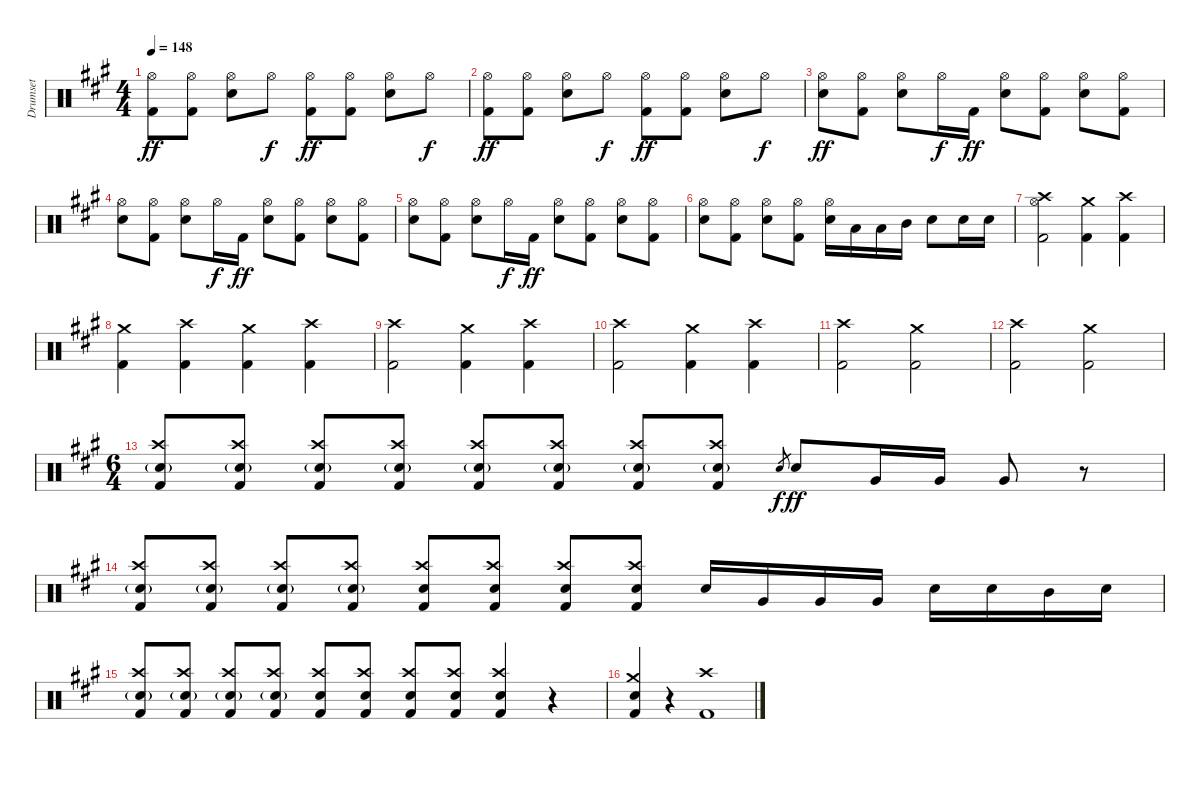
\track ("Drumset" "Drumset") {instrument percussion}
\staff {score}
\articulation defaults
\ts (4 4)
\tempo 148
\clef neutral
\ks a
("Hi-Hat (open)" "Kick (hit) 2").8{dy ff} ("Hi-Hat (open)" "Kick (hit) 2").8 ("Hi-Hat (open)" "Electric Snare (hit)").8 "Hi-Hat (open)".8{dy f} ("Hi-Hat (open)" "Kick (hit) 2").8{dy ff} ("Hi-Hat (open)" "Kick (hit) 2").8 ("Hi-Hat (open)" "Electric Snare (hit)").8 "Hi-Hat (open)".8{dy f} |
("Hi-Hat (open)" "Kick (hit) 2").8{dy ff} ("Hi-Hat (open)" "Kick (hit) 2").8 ("Hi-Hat (open)" "Electric Snare (hit)").8 "Hi-Hat (open)".8{dy f} ("Hi-Hat (open)" "Kick (hit) 2").8{dy ff} ("Hi-Hat (open)" "Kick (hit) 2").8 ("Hi-Hat (open)" "Electric Snare (hit)").8 "Hi-Hat (open)".8{dy f} |
("Hi-Hat (open)" "Electric Snare (hit)").8{dy ff} ("Hi-Hat (open)" "Kick (hit) 2").8 ("Hi-Hat (open)" "Electric Snare (hit)").8 "Hi-Hat (open)".16{dy f} "Kick (hit) 2".16{dy ff} ("Hi-Hat (open)" "Electric Snare (hit)").8 ("Hi-Hat (open)" "Kick (hit) 2").8 ("Hi-Hat (open)" "Electric Snare (hit)").8 ("Hi-Hat (open)" "Kick (hit) 2").8 |
("Hi-Hat (open)" "Electric Snare (hit)").8 ("Hi-Hat (open)" "Kick (hit) 2").8 ("Hi-Hat (open)" "Electric Snare (hit)").8 "Hi-Hat (open)".16{dy f} "Kick (hit) 2".16{dy ff} ("Hi-Hat (open)" "Electric Snare (hit)").8 ("Hi-Hat (open)" "Kick (hit) 2").8 ("Hi-Hat (open)" "Electric Snare (hit)").8 ("Hi-Hat (open)" "Kick (hit) 2").8 |
("Hi-Hat (open)" "Electric Snare (hit)").8 ("Hi-Hat (open)" "Kick (hit) 2").8 ("Hi-Hat (open)" "Electric Snare (hit)").8 "Hi-Hat (open)".16{dy f} "Kick (hit) 2".16{dy ff} ("Hi-Hat (open)" "Electric Snare (hit)").8 ("Hi-Hat (open)" "Kick (hit) 2").8 ("Hi-Hat (open)" "Electric Snare (hit)").8 ("Hi-Hat (open)" "Kick (hit) 2").8 |
("Hi-Hat (open)" "Electric Snare (hit)").8 ("Hi-Hat (open)" "Kick (hit) 2").8 ("Hi-Hat (open)" "Electric Snare (hit)").8 ("Hi-Hat (open)" "Kick (hit) 2").8 ("Hi-Hat (open)" "Electric Snare (hit)").16 "Low Tom (hit)".16 "Low Tom (hit)".16 "Mid Tom (hit)".16 "Electric Snare (hit)".8 "Electric Snare (hit)".16 "Electric Snare (hit)".16 |
("Hi-Hat (open)" "Crash high (hit)" "Kick (hit) 2").2 ("Crash medium (hit)" "Kick (hit) 2").4 ("Crash high (hit)" "Kick (hit) 2").4 |
("Crash medium (hit)" "Kick (hit) 2").4 ("Crash high (hit)" "Kick (hit) 2").4 ("Crash medium (hit)" "Kick (hit) 2").4 ("Crash high (hit)" "Kick (hit) 2").4 |
("Crash high (hit)" "Kick (hit) 2").2 ("Crash medium (hit)" "Kick (hit) 2").4 ("Crash high (hit)" "Kick (hit) 2").4 |
("Crash high (hit)" "Kick (hit) 2").2 ("Crash medium (hit)" "Kick (hit) 2").4 ("Crash high (hit)" "Kick (hit) 2").4 |
("Crash high (hit)" "Kick (hit) 2").2 ("Crash medium (hit)" "Kick (hit) 2").2 |
("Crash high (hit)" "Kick (hit) 2").2 ("Crash medium (hit)" "Kick (hit) 2").2 |
\ts (6 4)
("Crash high (hit)" "Snare (hit) 2"{g} "Kick (hit) 2").8 ("Crash high (hit)" "Snare (hit) 2"{g} "Kick (hit) 2").8 ("Crash high (hit)" "Snare (hit) 2"{g} "Kick (hit) 2").8 ("Crash high (hit)" "Snare (hit) 2"{g} "Kick (hit) 2").8 ("Crash high (hit)" "Snare (hit) 2"{g} "Kick (hit) 2").8 ("Crash high (hit)" "Snare (hit) 2"{g} "Kick (hit) 2").8 ("Crash high (hit)" "Snare (hit) 2"{g} "Kick (hit) 2").8 ("Crash high (hit)" "Snare (hit) 2"{g} "Kick (hit) 2").8 "Electric Snare (hit)".8{gr dy f} "Snare (hit) 2".8{dy ff} "Very Low Tom (hit)".16 "Very Low Tom (hit)".16 "Very Low Tom (hit)".8 r.8 |
("Crash high (hit)" "Snare (hit) 2"{g} "Kick (hit) 2").8 ("Crash high (hit)" "Snare (hit) 2"{g} "Kick (hit) 2").8 ("Crash high (hit)" "Snare (hit) 2"{g} "Kick (hit) 2").8 ("Crash high (hit)" "Snare (hit) 2"{g} "Kick (hit) 2").8 ("Crash high (hit)" "Snare (hit) 2" "Kick (hit) 2").8 ("Crash high (hit)" "Snare (hit) 2" "Kick (hit) 2").8 ("Crash high (hit)" "Snare (hit) 2" "Kick (hit) 2").8 ("Crash high (hit)" "Snare (hit) 2" "Kick (hit) 2").8 "Snare (hit) 2".16 "Very Low Tom (hit)".16 "Very Low Tom (hit)".16 "Very Low Tom (hit)".16 "Snare (hit) 2".16 "Snare (hit) 2".16 "Mid Tom (hit)".16 "Snare (hit) 2".16 |
("Crash high (hit)" "Snare (hit) 2"{g} "Kick (hit) 2").8 ("Crash high (hit)" "Snare (hit) 2"{g} "Kick (hit) 2").8 ("Crash high (hit)" "Snare (hit) 2"{g} "Kick (hit) 2").8 ("Crash high (hit)" "Snare (hit) 2"{g} "Kick (hit) 2").8 ("Crash high (hit)" "Snare (hit) 2" "Kick (hit) 2").8 ("Crash high (hit)" "Snare (hit) 2" "Kick (hit) 2").8 ("Crash high (hit)" "Snare (hit) 2" "Kick (hit) 2").8 ("Crash high (hit)" "Snare (hit) 2" "Kick (hit) 2").8 ("Crash high (hit)" "Snare (hit) 2" "Kick (hit) 2").4 r.4 |
("Crash medium (hit)" "Snare (hit) 2" "Kick (hit) 2").4 r.4 ("Crash high (hit)" "Kick (hit) 2").1
